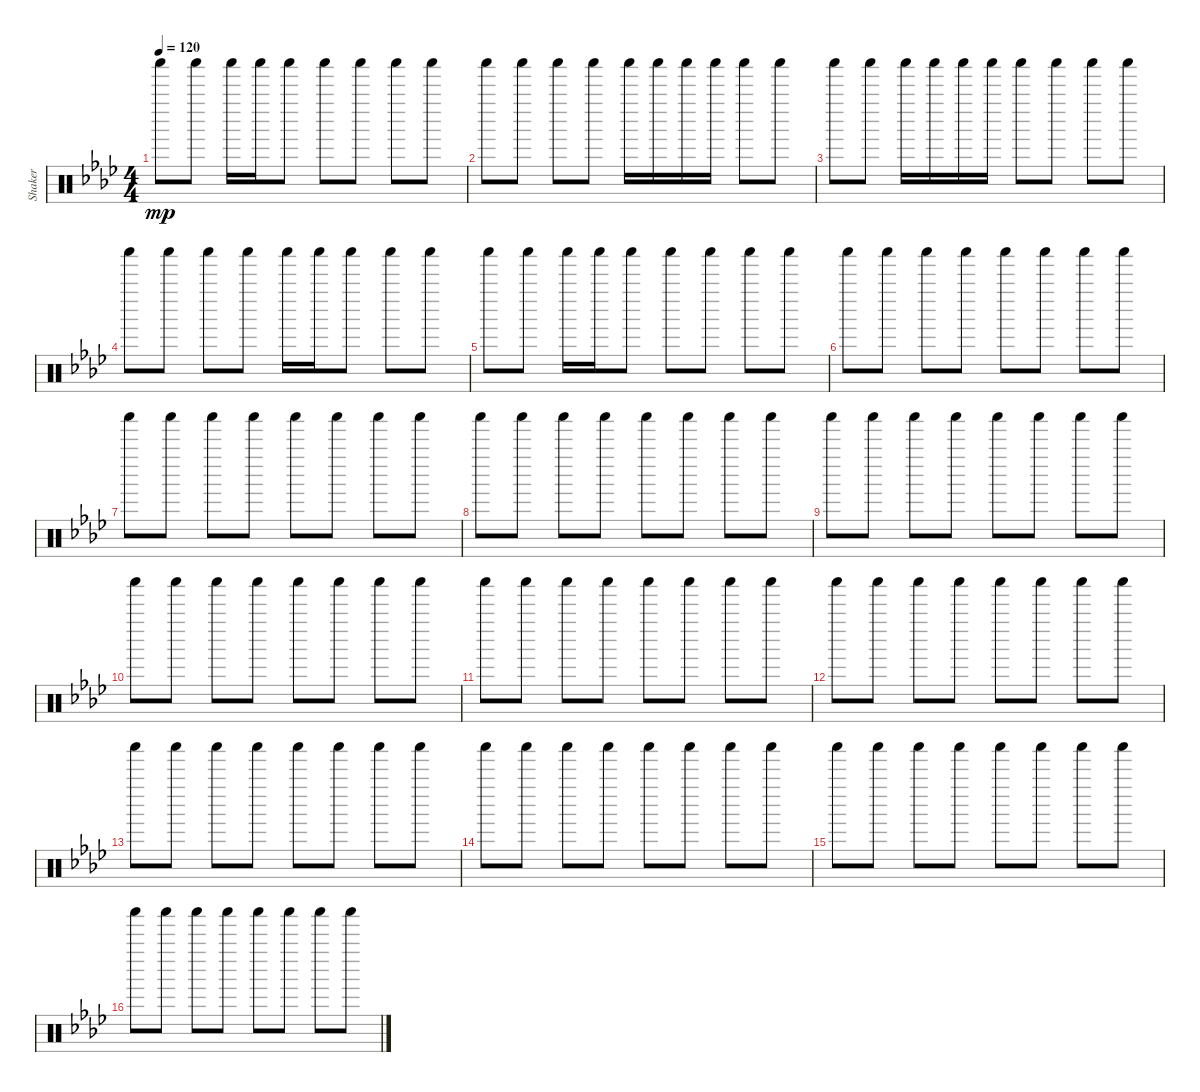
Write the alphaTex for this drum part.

\track ("Shaker" "Shaker") {instrument percussion}
\staff {score}
\articulation defaults
\ts (4 4)
\tempo 120
\clef neutral
\ks ab "Shaker (hit)".8{dy mp} "Shaker (hit)".8 "Shaker (hit)".16 "Shaker (hit)".16 "Shaker (hit)".8 "Shaker (hit)".8 "Shaker (hit)".8 "Shaker (hit)".8 "Shaker (hit)".8
|
"Shaker (hit)".8 "Shaker (hit)".8 "Shaker (hit)".8 "Shaker (hit)".8 "Shaker (hit)".16 "Shaker (hit)".16 "Shaker (hit)".16 "Shaker (hit)".16 "Shaker (hit)".8 "Shaker (hit)".8 |
"Shaker (hit)".8 "Shaker (hit)".8 "Shaker (hit)".16 "Shaker (hit)".16 "Shaker (hit)".16 "Shaker (hit)".16 "Shaker (hit)".8 "Shaker (hit)".8 "Shaker (hit)".8 "Shaker (hit)".8 |
"Shaker (hit)".8 "Shaker (hit)".8 "Shaker (hit)".8 "Shaker (hit)".8 "Shaker (hit)".16 "Shaker (hit)".16 "Shaker (hit)".8 "Shaker (hit)".8 "Shaker (hit)".8 |
"Shaker (hit)".8 "Shaker (hit)".8 "Shaker (hit)".16 "Shaker (hit)".16 "Shaker (hit)".8 "Shaker (hit)".8 "Shaker (hit)".8 "Shaker (hit)".8 "Shaker (hit)".8 |
"Shaker (hit)".8 "Shaker (hit)".8 "Shaker (hit)".8 "Shaker (hit)".8 "Shaker (hit)".8 "Shaker (hit)".8 "Shaker (hit)".8 "Shaker (hit)".8 |
"Shaker (hit)".8 "Shaker (hit)".8 "Shaker (hit)".8 "Shaker (hit)".8 "Shaker (hit)".8 "Shaker (hit)".8 "Shaker (hit)".8 "Shaker (hit)".8 |
"Shaker (hit)".8 "Shaker (hit)".8 "Shaker (hit)".8 "Shaker (hit)".8 "Shaker (hit)".8 "Shaker (hit)".8 "Shaker (hit)".8 "Shaker (hit)".8 |
"Shaker (hit)".8 "Shaker (hit)".8 "Shaker (hit)".8 "Shaker (hit)".8 "Shaker (hit)".8 "Shaker (hit)".8 "Shaker (hit)".8 "Shaker (hit)".8 |
"Shaker (hit)".8 "Shaker (hit)".8 "Shaker (hit)".8 "Shaker (hit)".8 "Shaker (hit)".8 "Shaker (hit)".8 "Shaker (hit)".8 "Shaker (hit)".8 |
"Shaker (hit)".8 "Shaker (hit)".8 "Shaker (hit)".8 "Shaker (hit)".8 "Shaker (hit)".8 "Shaker (hit)".8 "Shaker (hit)".8 "Shaker (hit)".8 |
"Shaker (hit)".8 "Shaker (hit)".8 "Shaker (hit)".8 "Shaker (hit)".8 "Shaker (hit)".8 "Shaker (hit)".8 "Shaker (hit)".8 "Shaker (hit)".8 |
"Shaker (hit)".8 "Shaker (hit)".8 "Shaker (hit)".8 "Shaker (hit)".8 "Shaker (hit)".8 "Shaker (hit)".8 "Shaker (hit)".8 "Shaker (hit)".8 |
"Shaker (hit)".8 "Shaker (hit)".8 "Shaker (hit)".8 "Shaker (hit)".8 "Shaker (hit)".8 "Shaker (hit)".8 "Shaker (hit)".8 "Shaker (hit)".8 |
"Shaker (hit)".8 "Shaker (hit)".8 "Shaker (hit)".8 "Shaker (hit)".8 "Shaker (hit)".8 "Shaker (hit)".8 "Shaker (hit)".8 "Shaker (hit)".8 |
"Shaker (hit)".8 "Shaker (hit)".8 "Shaker (hit)".8 "Shaker (hit)".8 "Shaker (hit)".8 "Shaker (hit)".8 "Shaker (hit)".8 "Shaker (hit)".8
